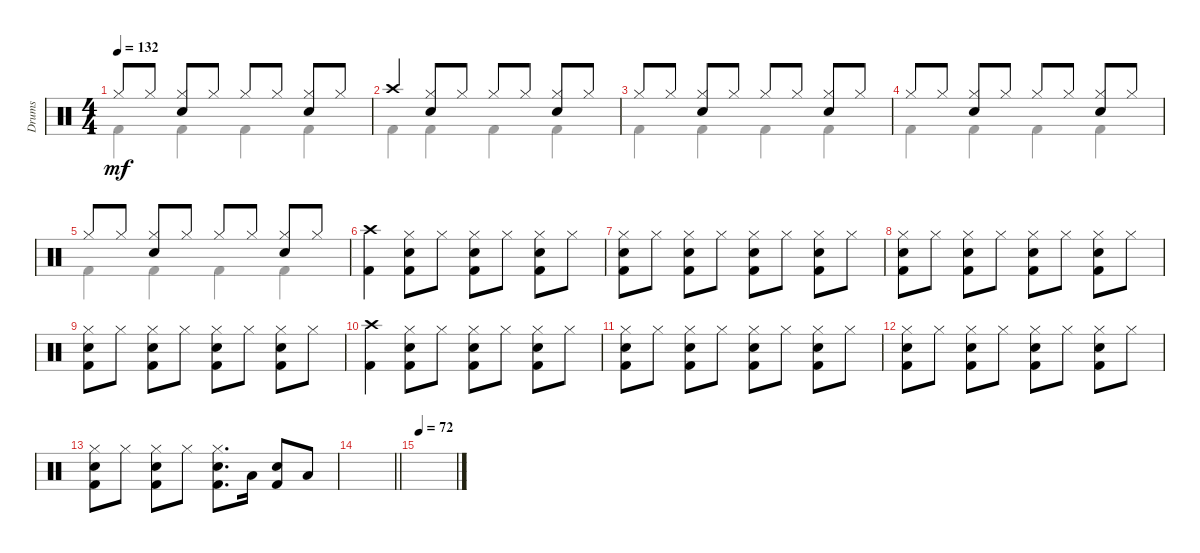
\track ("Drums" "Drums") {instrument percussion}
\staff {score}
\articulation defaults
\voice
\ts (4 4)
\tempo 132
\clef neutral
\ks c "Hi-Hat (closed)".8{dy mf} "Hi-Hat (closed)".8
("Hi-Hat (closed)" "Snare (hit) 2").8 "Hi-Hat (closed)".8 "Hi-Hat (closed)".8 "Hi-Hat (closed)".8 ("Hi-Hat (closed)" "Snare (hit) 2").8 "Hi-Hat (closed)".8 |
"Crash high (hit)".4 ("Hi-Hat (closed)" "Snare (hit) 2").8 "Hi-Hat (closed)".8 "Hi-Hat (closed)".8 "Hi-Hat (closed)".8 ("Hi-Hat (closed)" "Snare (hit) 2").8 "Hi-Hat (closed)".8 |
"Hi-Hat (closed)".8 "Hi-Hat (closed)".8 ("Hi-Hat (closed)" "Snare (hit) 2").8 "Hi-Hat (closed)".8 "Hi-Hat (closed)".8 "Hi-Hat (closed)".8 ("Hi-Hat (closed)" "Snare (hit) 2").8 "Hi-Hat (closed)".8 |
"Hi-Hat (closed)".8 "Hi-Hat (closed)".8 ("Hi-Hat (closed)" "Snare (hit) 2").8 "Hi-Hat (closed)".8 "Hi-Hat (closed)".8 "Hi-Hat (closed)".8 ("Hi-Hat (closed)" "Snare (hit) 2").8 "Hi-Hat (closed)".8 |
"Hi-Hat (closed)".8 "Hi-Hat (closed)".8 ("Hi-Hat (closed)" "Snare (hit) 2").8 "Hi-Hat (closed)".8 "Hi-Hat (closed)".8 "Hi-Hat (closed)".8 ("Hi-Hat (closed)" "Snare (hit) 2").8 "Hi-Hat (closed)".8 |
("Kick (hit) 2" "Crash high (hit)").4 ("Kick (hit) 2" "Hi-Hat (closed)" "Snare (hit) 2").8 "Hi-Hat (closed)".8 ("Snare (hit) 2" "Kick (hit) 2" "Hi-Hat (closed)").8 "Hi-Hat (closed)".8 ("Hi-Hat (closed)" "Kick (hit) 2" "Snare (hit) 2").8 "Hi-Hat (closed)".8 |
("Snare (hit) 2" "Kick (hit) 2" "Hi-Hat (closed)").8 "Hi-Hat (closed)".8 ("Kick (hit) 2" "Hi-Hat (closed)" "Snare (hit) 2").8 "Hi-Hat (closed)".8 ("Snare (hit) 2" "Kick (hit) 2" "Hi-Hat (closed)").8 "Hi-Hat (closed)".8 ("Hi-Hat (closed)" "Kick (hit) 2" "Snare (hit) 2").8 "Hi-Hat (closed)".8 |
("Snare (hit) 2" "Kick (hit) 2" "Hi-Hat (closed)").8 "Hi-Hat (closed)".8 ("Kick (hit) 2" "Hi-Hat (closed)" "Snare (hit) 2").8 "Hi-Hat (closed)".8 ("Snare (hit) 2" "Kick (hit) 2" "Hi-Hat (closed)").8 "Hi-Hat (closed)".8 ("Hi-Hat (closed)" "Kick (hit) 2" "Snare (hit) 2").8 "Hi-Hat (closed)".8 |
("Snare (hit) 2" "Kick (hit) 2" "Hi-Hat (closed)").8 "Hi-Hat (closed)".8 ("Kick (hit) 2" "Hi-Hat (closed)" "Snare (hit) 2").8 "Hi-Hat (closed)".8 ("Snare (hit) 2" "Kick (hit) 2" "Hi-Hat (closed)").8 "Hi-Hat (closed)".8 ("Hi-Hat (closed)" "Kick (hit) 2" "Snare (hit) 2").8 "Hi-Hat (closed)".8 |
("Kick (hit) 2" "Crash high (hit)").4 ("Kick (hit) 2" "Hi-Hat (closed)" "Snare (hit) 2").8 "Hi-Hat (closed)".8 ("Snare (hit) 2" "Kick (hit) 2" "Hi-Hat (closed)").8 "Hi-Hat (closed)".8 ("Hi-Hat (closed)" "Kick (hit) 2" "Snare (hit) 2").8 "Hi-Hat (closed)".8 |
("Snare (hit) 2" "Kick (hit) 2" "Hi-Hat (closed)").8 "Hi-Hat (closed)".8 ("Kick (hit) 2" "Hi-Hat (closed)" "Snare (hit) 2").8 "Hi-Hat (closed)".8 ("Snare (hit) 2" "Kick (hit) 2" "Hi-Hat (closed)").8 "Hi-Hat (closed)".8 ("Hi-Hat (closed)" "Kick (hit) 2" "Snare (hit) 2").8 "Hi-Hat (closed)".8 |
("Snare (hit) 2" "Kick (hit) 2" "Hi-Hat (closed)").8 "Hi-Hat (closed)".8 ("Kick (hit) 2" "Hi-Hat (closed)" "Snare (hit) 2").8 "Hi-Hat (closed)".8 ("Snare (hit) 2" "Kick (hit) 2" "Hi-Hat (closed)").8 "Hi-Hat (closed)".8 ("Hi-Hat (closed)" "Kick (hit) 2" "Snare (hit) 2").8 "Hi-Hat (closed)".8 |
("Snare (hit) 2" "Kick (hit) 2" "Hi-Hat (closed)").8 "Hi-Hat (closed)".8 ("Kick (hit) 2" "Hi-Hat (closed)" "Snare (hit) 2").8 "Hi-Hat (closed)".8 ("Snare (hit) 2" "Kick (hit) 2" "Hi-Hat (closed)").8{d} "Low Tom (hit)".16 ("Kick (hit) 2" "Snare (hit) 2").8 "Low Tom (hit)".8 |
\barLineRight lightlight
|
\tempo 72
|
\voice
\clef neutral
\ottava regular
\simile none
\ks c "Kick (hit) 2".4{dy mf} "Kick (hit) 2".4 "Kick (hit) 2".4 "Kick (hit) 2".4
|
"Kick (hit) 2".4 "Kick (hit) 2".4 "Kick (hit) 2".4 "Kick (hit) 2".4 |
"Kick (hit) 2".4 "Kick (hit) 2".4 "Kick (hit) 2".4 "Kick (hit) 2".4 |
"Kick (hit) 2".4 "Kick (hit) 2".4 "Kick (hit) 2".4 "Kick (hit) 2".4 |
"Kick (hit) 2".4 "Kick (hit) 2".4 "Kick (hit) 2".4 "Kick (hit) 2".4 |
|
|
|
|
|
|
|
|
\barLineRight lightlight
|
|
